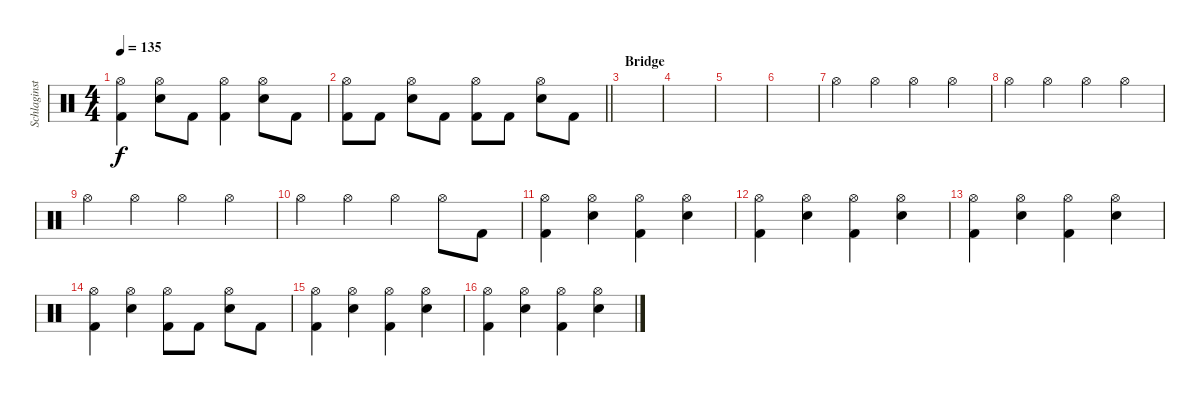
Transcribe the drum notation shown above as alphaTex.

\track ("Schlaginstrumente - Auswahl" "Schlaginst") {instrument percussion}
\staff {score}
\articulation defaults
\ts (4 4)
\tempo 135
\clef neutral
\ks c
("Hi-Hat (open)" "Kick (hit) 2").4{dy f} ("Hi-Hat (open)" "Electric Snare (hit)").8 "Kick (hit) 2".8 ("Hi-Hat (open)" "Kick (hit) 2").4 ("Hi-Hat (open)" "Electric Snare (hit)").8 "Kick (hit) 2".8 |
\barLineRight lightlight
("Hi-Hat (open)" "Kick (hit) 2").8 "Kick (hit) 2".8 ("Hi-Hat (open)" "Electric Snare (hit)").8 "Kick (hit) 2".8 ("Hi-Hat (open)" "Kick (hit) 2").8 "Kick (hit) 2".8 ("Hi-Hat (open)" "Electric Snare (hit)").8 "Kick (hit) 2".8 |
\section ("" "Bridge")
|
|
|
|
"Hi-Hat (open)".4 "Hi-Hat (open)".4 "Hi-Hat (open)".4 "Hi-Hat (open)".4 |
"Hi-Hat (open)".4 "Hi-Hat (open)".4 "Hi-Hat (open)".4 "Hi-Hat (open)".4 |
"Hi-Hat (open)".4 "Hi-Hat (open)".4 "Hi-Hat (open)".4 "Hi-Hat (open)".4 |
"Hi-Hat (open)".4 "Hi-Hat (open)".4 "Hi-Hat (open)".4 "Hi-Hat (open)".8 "Kick (hit) 2".8 |
("Hi-Hat (open)" "Kick (hit) 2").4 ("Hi-Hat (open)" "Electric Snare (hit)").4 ("Hi-Hat (open)" "Kick (hit) 2").4 ("Hi-Hat (open)" "Electric Snare (hit)").4 |
("Hi-Hat (open)" "Kick (hit) 2").4 ("Hi-Hat (open)" "Electric Snare (hit)").4 ("Hi-Hat (open)" "Kick (hit) 2").4 ("Hi-Hat (open)" "Electric Snare (hit)").4 |
("Hi-Hat (open)" "Kick (hit) 2").4 ("Hi-Hat (open)" "Electric Snare (hit)").4 ("Hi-Hat (open)" "Kick (hit) 2").4 ("Hi-Hat (open)" "Electric Snare (hit)").4 |
("Hi-Hat (open)" "Kick (hit) 2").4 ("Hi-Hat (open)" "Electric Snare (hit)").4 ("Hi-Hat (open)" "Kick (hit) 2").8 "Kick (hit) 2".8 ("Hi-Hat (open)" "Electric Snare (hit)").8 "Kick (hit) 2".8 |
("Hi-Hat (open)" "Kick (hit) 2").4 ("Hi-Hat (open)" "Electric Snare (hit)").4 ("Hi-Hat (open)" "Kick (hit) 2").4 ("Hi-Hat (open)" "Electric Snare (hit)").4 |
("Hi-Hat (open)" "Kick (hit) 2").4 ("Hi-Hat (open)" "Electric Snare (hit)").4 ("Hi-Hat (open)" "Kick (hit) 2").4 ("Hi-Hat (open)" "Electric Snare (hit)").4
